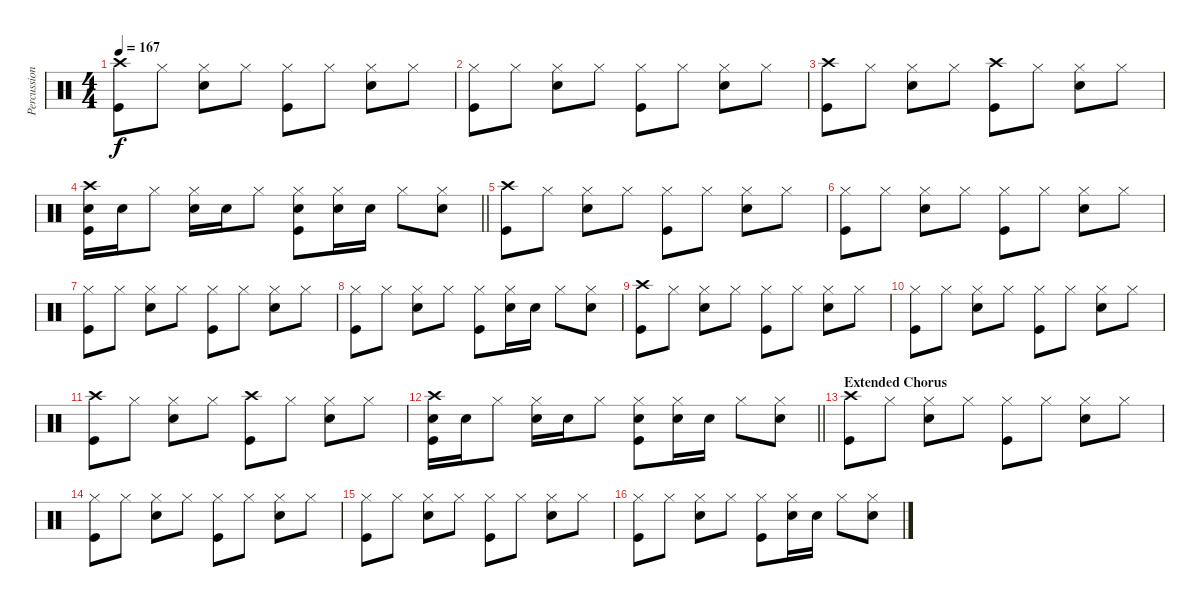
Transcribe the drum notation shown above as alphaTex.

\track ("Percussion" "Percussion") {instrument percussion}
\staff {score}
\articulation defaults
\ts (4 4)
\tempo 167
\clef neutral
\ks c
("Crash high (hit)" "Kick (hit)").8{dy f} "Hi-Hat (closed)".8 ("Hi-Hat (closed)" "Electric Snare (hit)").8 "Hi-Hat (closed)".8 ("Hi-Hat (closed)" "Kick (hit)").8 "Hi-Hat (closed)".8 ("Hi-Hat (closed)" "Electric Snare (hit)").8 "Hi-Hat (closed)".8 |
("Hi-Hat (closed)" "Kick (hit)").8 "Hi-Hat (closed)".8 ("Hi-Hat (closed)" "Electric Snare (hit)").8 "Hi-Hat (closed)".8 ("Hi-Hat (closed)" "Kick (hit)").8 "Hi-Hat (closed)".8 ("Hi-Hat (closed)" "Electric Snare (hit)").8 "Hi-Hat (closed)".8 |
("Crash high (hit)" "Kick (hit)").8 "Hi-Hat (closed)".8 ("Hi-Hat (closed)" "Electric Snare (hit)").8 "Hi-Hat (closed)".8 ("Crash high (hit)" "Kick (hit)").8 "Hi-Hat (closed)".8 ("Hi-Hat (closed)" "Electric Snare (hit)").8 "Hi-Hat (closed)".8 |
\barLineRight lightlight
("Crash high (hit)" "Electric Snare (hit)" "Kick (hit)").16 "Electric Snare (hit)".16 "Hi-Hat (closed)".8 ("Hi-Hat (closed)" "Electric Snare (hit)").16 "Electric Snare (hit)".16 "Hi-Hat (closed)".8 ("Hi-Hat (closed)" "Electric Snare (hit)" "Kick (hit)").8 ("Hi-Hat (closed)" "Electric Snare (hit)").16 "Electric Snare (hit)".16 "Hi-Hat (closed)".8 ("Hi-Hat (closed)" "Electric Snare (hit)").8 |
("Crash high (hit)" "Kick (hit)").8 "Hi-Hat (closed)".8 ("Hi-Hat (closed)" "Electric Snare (hit)").8 "Hi-Hat (closed)".8 ("Hi-Hat (closed)" "Kick (hit)").8 "Hi-Hat (closed)".8 ("Hi-Hat (closed)" "Electric Snare (hit)").8 "Hi-Hat (closed)".8 |
("Hi-Hat (closed)" "Kick (hit)").8 "Hi-Hat (closed)".8 ("Hi-Hat (closed)" "Electric Snare (hit)").8 "Hi-Hat (closed)".8 ("Hi-Hat (closed)" "Kick (hit)").8 "Hi-Hat (closed)".8 ("Hi-Hat (closed)" "Electric Snare (hit)").8 "Hi-Hat (closed)".8 |
("Hi-Hat (closed)" "Kick (hit)").8 "Hi-Hat (closed)".8 ("Hi-Hat (closed)" "Electric Snare (hit)").8 "Hi-Hat (closed)".8 ("Hi-Hat (closed)" "Kick (hit)").8 "Hi-Hat (closed)".8 ("Hi-Hat (closed)" "Electric Snare (hit)").8 "Hi-Hat (closed)".8 |
("Hi-Hat (closed)" "Kick (hit)").8 "Hi-Hat (closed)".8 ("Hi-Hat (closed)" "Electric Snare (hit)").8 "Hi-Hat (closed)".8 ("Hi-Hat (closed)" "Kick (hit)").8 ("Hi-Hat (closed)" "Electric Snare (hit)").16 "Electric Snare (hit)".16 "Hi-Hat (closed)".8 ("Hi-Hat (closed)" "Electric Snare (hit)").8 |
("Crash high (hit)" "Kick (hit)").8 "Hi-Hat (closed)".8 ("Hi-Hat (closed)" "Electric Snare (hit)").8 "Hi-Hat (closed)".8 ("Hi-Hat (closed)" "Kick (hit)").8 "Hi-Hat (closed)".8 ("Hi-Hat (closed)" "Electric Snare (hit)").8 "Hi-Hat (closed)".8 |
("Hi-Hat (closed)" "Kick (hit)").8 "Hi-Hat (closed)".8 ("Hi-Hat (closed)" "Electric Snare (hit)").8 "Hi-Hat (closed)".8 ("Hi-Hat (closed)" "Kick (hit)").8 "Hi-Hat (closed)".8 ("Hi-Hat (closed)" "Electric Snare (hit)").8 "Hi-Hat (closed)".8 |
("Crash high (hit)" "Kick (hit)").8 "Hi-Hat (closed)".8 ("Hi-Hat (closed)" "Electric Snare (hit)").8 "Hi-Hat (closed)".8 ("Crash high (hit)" "Kick (hit)").8 "Hi-Hat (closed)".8 ("Hi-Hat (closed)" "Electric Snare (hit)").8 "Hi-Hat (closed)".8 |
\barLineRight lightlight
("Crash high (hit)" "Electric Snare (hit)" "Kick (hit)").16 "Electric Snare (hit)".16 "Hi-Hat (closed)".8 ("Hi-Hat (closed)" "Electric Snare (hit)").16 "Electric Snare (hit)".16 "Hi-Hat (closed)".8 ("Hi-Hat (closed)" "Electric Snare (hit)" "Kick (hit)").8 ("Hi-Hat (closed)" "Electric Snare (hit)").16 "Electric Snare (hit)".16 "Hi-Hat (closed)".8 ("Hi-Hat (closed)" "Electric Snare (hit)").8 |
\section ("" "Extended Chorus")
("Crash high (hit)" "Kick (hit)").8 "Hi-Hat (closed)".8 ("Hi-Hat (closed)" "Electric Snare (hit)").8 "Hi-Hat (closed)".8 ("Hi-Hat (closed)" "Kick (hit)").8 "Hi-Hat (closed)".8 ("Hi-Hat (closed)" "Electric Snare (hit)").8 "Hi-Hat (closed)".8 |
("Hi-Hat (closed)" "Kick (hit)").8 "Hi-Hat (closed)".8 ("Hi-Hat (closed)" "Electric Snare (hit)").8 "Hi-Hat (closed)".8 ("Hi-Hat (closed)" "Kick (hit)").8 "Hi-Hat (closed)".8 ("Hi-Hat (closed)" "Electric Snare (hit)").8 "Hi-Hat (closed)".8 |
("Hi-Hat (closed)" "Kick (hit)").8 "Hi-Hat (closed)".8 ("Hi-Hat (closed)" "Electric Snare (hit)").8 "Hi-Hat (closed)".8 ("Hi-Hat (closed)" "Kick (hit)").8 "Hi-Hat (closed)".8 ("Hi-Hat (closed)" "Electric Snare (hit)").8 "Hi-Hat (closed)".8 |
("Hi-Hat (closed)" "Kick (hit)").8 "Hi-Hat (closed)".8 ("Hi-Hat (closed)" "Electric Snare (hit)").8 "Hi-Hat (closed)".8 ("Hi-Hat (closed)" "Kick (hit)").8 ("Hi-Hat (closed)" "Electric Snare (hit)").16 "Electric Snare (hit)".16 "Hi-Hat (closed)".8 ("Hi-Hat (closed)" "Electric Snare (hit)").8
